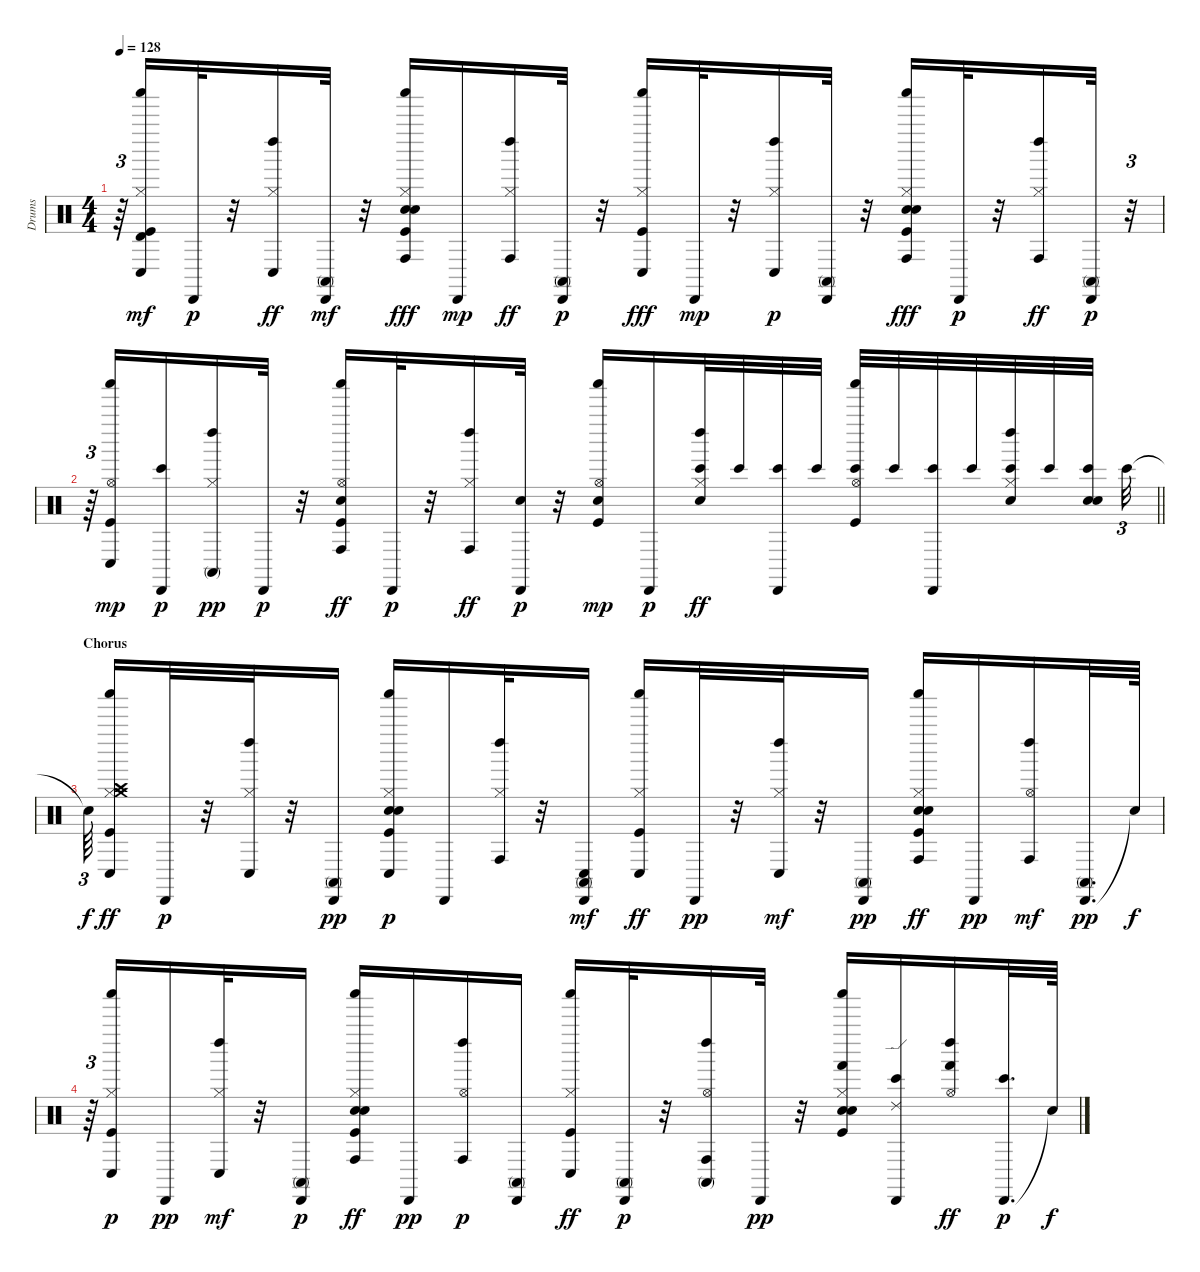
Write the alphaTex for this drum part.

\track ("Drums" "Drums") {instrument percussion}
\staff {score}
\articulation defaults
\ts (4 4)
\tempo 128
\clef neutral
\ks c
r.64{tu (3 2) dy p} ("Kick (hit)" "Hi-Hat (closed)" "Shaker (hit)" "Conga low (hit)" "Timbale high (hit)").16{dy mf} "Cabasa (hit)".32{dy p} r.32 ("Hi-Hat (closed)" "Left Maraca (hit)" "Conga low (hit)").16{dy ff} ("Cabasa (hit)" "Conga high (mute)").32{dy mf} r.32 ("Kick (hit)" "Electric Snare (hit)" "Hand Clap (hit)" "Hi-Hat (closed)" "Shaker (hit)" "Conga high (hit)").16{dy fff} "Cabasa (hit)".16{dy mp} ("Hi-Hat (closed)" "Left Maraca (hit)" "Conga high (hit)").16{dy ff} ("Cabasa (hit)" "Conga high (mute)").32{dy p} r.32 ("Kick (hit)" "Hi-Hat (closed)" "Shaker (hit)" "Conga low (hit)").16{dy fff} "Cabasa (hit)".32{dy mp} r.32 ("Hi-Hat (closed)" "Left Maraca (hit)" "Conga low (hit)").16{dy p} ("Cabasa (hit)" "Conga high (mute)").32 r.32 ("Kick (hit)" "Electric Snare (hit)" "Hand Clap (hit)" "Hi-Hat (closed)" "Shaker (hit)" "Conga high (hit)").16{dy fff} "Cabasa (hit)".32{dy p} r.32 ("Hi-Hat (closed)" "Left Maraca (hit)" "Conga high (hit)").16{dy ff} ("Cabasa (hit)" "Conga high (mute)").32{dy p} r.32{tu (3 2)} |
\barLineRight lightlight
r.64{tu (3 2)} ("Kick (hit)" "Hi-Hat (open)" "Shaker (hit)" "Conga low (hit)").16{dy mp} ("Cabasa (hit)" "Bongo High (hit)").16{dy p} ("Hi-Hat (closed)" "Left Maraca (hit)" "Conga high (mute)").16{dy pp} "Cabasa (hit)".32{dy p} r.32 ("Kick (hit)" "Electric Snare (hit)" "Hi-Hat (open)" "Shaker (hit)" "Conga high (hit)").16{dy ff} "Cabasa (hit)".32{dy p} r.32 ("Hi-Hat (closed)" "Left Maraca (hit)" "Conga high (hit)").16{dy ff} ("Electric Snare (hit)" "Cabasa (hit)").32{dy p} r.32 ("Kick (hit)" "Electric Snare (hit)" "Hi-Hat (open)" "Shaker (hit)").16{dy mp} "Cabasa (hit)".16{dy p} ("Electric Snare (hit)" "Hi-Hat (closed)" "Left Maraca (hit)" "Bongo High (hit)").32{dy ff} "Bongo High (hit)".32 ("Cabasa (hit)" "Bongo High (hit)").32 "Bongo High (hit)".32 ("Kick (hit)" "Hi-Hat (open)" "Shaker (hit)" "Bongo High (hit)").32 "Bongo High (hit)".32 ("Cabasa (hit)" "Bongo High (hit)").32 "Bongo High (hit)".32 ("Electric Snare (hit)" "Hi-Hat (closed)" "Left Maraca (hit)" "Bongo High (hit)").32 "Bongo High (hit)".32 ("Electric Snare (hit)" "Snare (hit) 2" "Bongo High (hit)").32{beam splitsecondary} "Bongo High (hit)".32{tu (3 2)} |
\section ("" "Chorus")
"Snare (hit)"{t}.64{tu (3 2) dy f beam splitsecondary} ("Kick (hit)" "Hi-Hat (closed)" "Crash medium (hit)" "Crash high (hit)" "Shaker (hit)" "Conga low (hit)").16{dy ff} "Cabasa (hit)".32{dy p} r.32 ("Hi-Hat (closed)" "Left Maraca (hit)" "Conga low (hit)").32 r.32 ("Cabasa (hit)" "Conga high (mute)").16{dy pp} ("Kick (hit)" "Snare (hit) 2" "Hand Clap (hit)" "Hi-Hat (closed)" "Shaker (hit)" "Conga low (hit)").16{dy p} "Cabasa (hit)".16 ("Hi-Hat (closed)" "Left Maraca (hit)" "Conga high (hit)").32 r.32 ("Cabasa (hit)" "Conga high (mute)" "Conga low (hit)").16{dy mf} ("Kick (hit)" "Hi-Hat (closed)" "Shaker (hit)" "Conga low (hit)").16{dy ff} "Cabasa (hit)".32{dy pp} r.32 ("Hi-Hat (closed)" "Left Maraca (hit)" "Conga low (hit)").32{dy mf} r.32 ("Cabasa (hit)" "Conga high (mute)").16{dy pp} ("Kick (hit)" "Snare (hit) 2" "Hand Clap (hit)" "Hi-Hat (closed)" "Shaker (hit)" "Conga high (hit)").16{dy ff} "Cabasa (hit)".16{dy pp} ("Hi-Hat (open)" "Left Maraca (hit)" "Conga high (hit)").16{dy mf} ("Cabasa (hit)" "Conga high (mute)").32{d dy pp} "Snare (hit)"{t}.64{dy f} |
r.64{tu (3 2)} ("Kick (hit)" "Hi-Hat (closed)" "Shaker (hit)" "Conga low (hit)").16{dy p} "Cabasa (hit)".16{dy pp} ("Hi-Hat (closed)" "Left Maraca (hit)" "Conga low (hit)").32{dy mf} r.32 ("Cabasa (hit)" "Conga high (mute)").16{dy p} ("Kick (hit)" "Snare (hit) 2" "Hand Clap (hit)" "Hi-Hat (closed)" "Shaker (hit)" "Conga high (hit)").16{dy ff} "Cabasa (hit)".16{dy pp} ("Hi-Hat (open)" "Left Maraca (hit)" "Conga high (hit)").16{dy p} ("Cabasa (hit)" "Conga high (mute)").16 ("Kick (hit)" "Hi-Hat (closed)" "Shaker (hit)" "Conga low (hit)").16{dy ff} ("Cabasa (hit)" "Conga high (mute)").32{dy p} r.32 ("Hi-Hat (open)" "Left Maraca (hit)" "Conga high (hit)" "Conga high (mute)").16 "Cabasa (hit)".32{dy pp} r.32 ("Kick (hit)" "Snare (hit) 2" "Hand Clap (hit)" "Hi-Hat (closed)" "Shaker (hit)" "Hand (hit)").16 ("Cabasa (hit)" "Bongo High (hit)" "Ride (edge) 2").16 ("Hi-Hat (open)" "Left Maraca (hit)" "Hand (hit)").16{dy ff} ("Cabasa (hit)" "Bongo High (hit)").32{d dy p} "Snare (hit)"{t}.64{dy f}
